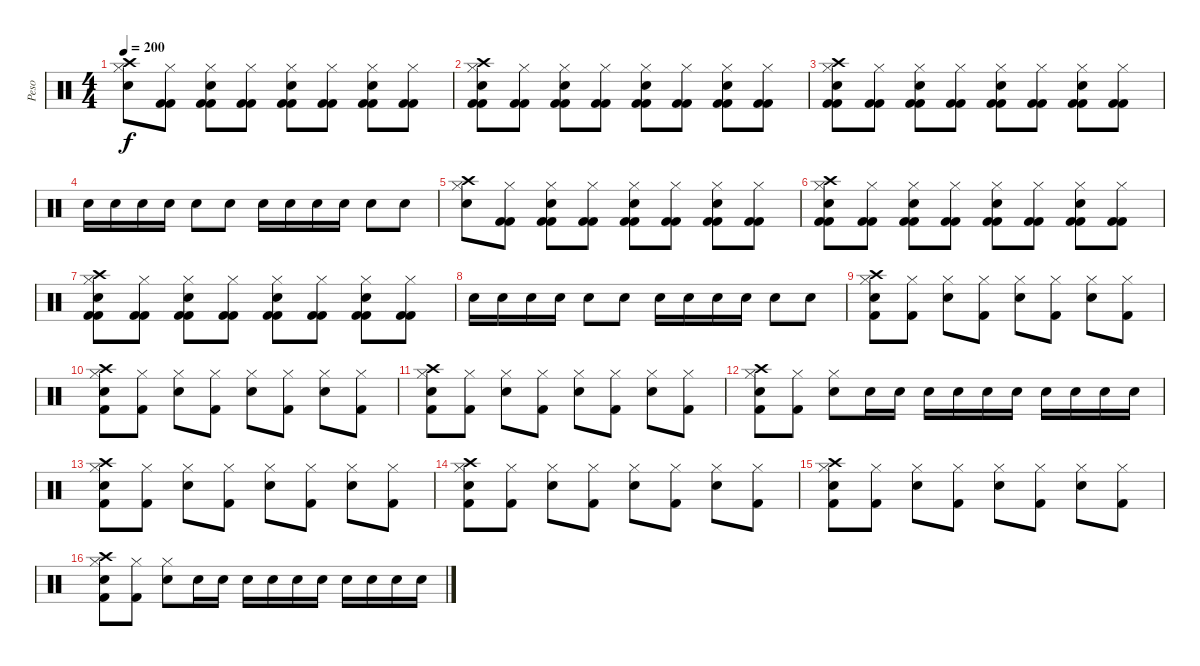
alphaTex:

\track ("Peso" "Peso") {instrument percussion}
\staff {score}
\articulation defaults
\ts (4 4)
\tempo 200
\clef neutral
\ks c
("Crash high (hit)" "Hi-Hat (closed)" "Snare (hit) 2").8{dy f} ("Hi-Hat (closed)" "Kick (hit) 2" "Kick (hit) 2").8 ("Hi-Hat (closed)" "Snare (hit) 2" "Kick (hit) 2" "Kick (hit) 2").8 ("Hi-Hat (closed)" "Kick (hit) 2" "Kick (hit) 2").8 ("Hi-Hat (closed)" "Snare (hit) 2" "Kick (hit) 2" "Kick (hit) 2").8 ("Hi-Hat (closed)" "Kick (hit) 2" "Kick (hit) 2").8 ("Hi-Hat (closed)" "Snare (hit) 2" "Kick (hit) 2" "Kick (hit) 2").8 ("Hi-Hat (closed)" "Kick (hit) 2" "Kick (hit) 2").8 |
("Crash high (hit)" "Hi-Hat (closed)" "Snare (hit) 2" "Kick (hit) 2" "Kick (hit) 2").8 ("Hi-Hat (closed)" "Kick (hit) 2" "Kick (hit) 2").8 ("Hi-Hat (closed)" "Snare (hit) 2" "Kick (hit) 2" "Kick (hit) 2").8 ("Hi-Hat (closed)" "Kick (hit) 2" "Kick (hit) 2").8 ("Hi-Hat (closed)" "Snare (hit) 2" "Kick (hit) 2" "Kick (hit) 2").8 ("Hi-Hat (closed)" "Kick (hit) 2" "Kick (hit) 2").8 ("Hi-Hat (closed)" "Snare (hit) 2" "Kick (hit) 2" "Kick (hit) 2").8 ("Hi-Hat (closed)" "Kick (hit) 2" "Kick (hit) 2").8 |
("Crash high (hit)" "Hi-Hat (closed)" "Snare (hit) 2" "Kick (hit) 2" "Kick (hit) 2").8 ("Hi-Hat (closed)" "Kick (hit) 2" "Kick (hit) 2").8 ("Hi-Hat (closed)" "Snare (hit) 2" "Kick (hit) 2" "Kick (hit) 2").8 ("Hi-Hat (closed)" "Kick (hit) 2" "Kick (hit) 2").8 ("Hi-Hat (closed)" "Snare (hit) 2" "Kick (hit) 2" "Kick (hit) 2").8 ("Hi-Hat (closed)" "Kick (hit) 2" "Kick (hit) 2").8 ("Hi-Hat (closed)" "Snare (hit) 2" "Kick (hit) 2" "Kick (hit) 2").8 ("Hi-Hat (closed)" "Kick (hit) 2" "Kick (hit) 2").8 |
"Snare (hit) 2".16 "Snare (hit) 2".16 "Snare (hit) 2".16 "Snare (hit) 2".16 "Snare (hit) 2".8 "Snare (hit) 2".8 "Snare (hit) 2".16 "Snare (hit) 2".16 "Snare (hit) 2".16 "Snare (hit) 2".16 "Snare (hit) 2".8 "Snare (hit) 2".8 |
("Crash high (hit)" "Hi-Hat (closed)" "Snare (hit) 2").8 ("Hi-Hat (closed)" "Kick (hit) 2" "Kick (hit) 2").8 ("Hi-Hat (closed)" "Snare (hit) 2" "Kick (hit) 2" "Kick (hit) 2").8 ("Hi-Hat (closed)" "Kick (hit) 2" "Kick (hit) 2").8 ("Hi-Hat (closed)" "Snare (hit) 2" "Kick (hit) 2" "Kick (hit) 2").8 ("Hi-Hat (closed)" "Kick (hit) 2" "Kick (hit) 2").8 ("Hi-Hat (closed)" "Snare (hit) 2" "Kick (hit) 2" "Kick (hit) 2").8 ("Hi-Hat (closed)" "Kick (hit) 2" "Kick (hit) 2").8 |
("Crash high (hit)" "Hi-Hat (closed)" "Snare (hit) 2" "Kick (hit) 2" "Kick (hit) 2").8 ("Hi-Hat (closed)" "Kick (hit) 2" "Kick (hit) 2").8 ("Hi-Hat (closed)" "Snare (hit) 2" "Kick (hit) 2" "Kick (hit) 2").8 ("Hi-Hat (closed)" "Kick (hit) 2" "Kick (hit) 2").8 ("Hi-Hat (closed)" "Snare (hit) 2" "Kick (hit) 2" "Kick (hit) 2").8 ("Hi-Hat (closed)" "Kick (hit) 2" "Kick (hit) 2").8 ("Hi-Hat (closed)" "Snare (hit) 2" "Kick (hit) 2" "Kick (hit) 2").8 ("Hi-Hat (closed)" "Kick (hit) 2" "Kick (hit) 2").8 |
("Crash high (hit)" "Hi-Hat (closed)" "Snare (hit) 2" "Kick (hit) 2" "Kick (hit) 2").8 ("Hi-Hat (closed)" "Kick (hit) 2" "Kick (hit) 2").8 ("Hi-Hat (closed)" "Snare (hit) 2" "Kick (hit) 2" "Kick (hit) 2").8 ("Hi-Hat (closed)" "Kick (hit) 2" "Kick (hit) 2").8 ("Hi-Hat (closed)" "Snare (hit) 2" "Kick (hit) 2" "Kick (hit) 2").8 ("Hi-Hat (closed)" "Kick (hit) 2" "Kick (hit) 2").8 ("Hi-Hat (closed)" "Snare (hit) 2" "Kick (hit) 2" "Kick (hit) 2").8 ("Hi-Hat (closed)" "Kick (hit) 2" "Kick (hit) 2").8 |
"Snare (hit) 2".16 "Snare (hit) 2".16 "Snare (hit) 2".16 "Snare (hit) 2".16 "Snare (hit) 2".8 "Snare (hit) 2".8 "Snare (hit) 2".16 "Snare (hit) 2".16 "Snare (hit) 2".16 "Snare (hit) 2".16 "Snare (hit) 2".8 "Snare (hit) 2".8 |
("Crash high (hit)" "Hi-Hat (closed)" "Snare (hit) 2" "Kick (hit) 2").8 ("Hi-Hat (closed)" "Kick (hit) 2").8 ("Hi-Hat (closed)" "Snare (hit) 2").8 ("Hi-Hat (closed)" "Kick (hit) 2").8 ("Hi-Hat (closed)" "Snare (hit) 2").8 ("Hi-Hat (closed)" "Kick (hit) 2").8 ("Hi-Hat (closed)" "Snare (hit) 2").8 ("Hi-Hat (closed)" "Kick (hit) 2").8 |
("Crash high (hit)" "Hi-Hat (closed)" "Snare (hit) 2" "Kick (hit) 2").8 ("Hi-Hat (closed)" "Kick (hit) 2").8 ("Hi-Hat (closed)" "Snare (hit) 2").8 ("Hi-Hat (closed)" "Kick (hit) 2").8 ("Hi-Hat (closed)" "Snare (hit) 2").8 ("Hi-Hat (closed)" "Kick (hit) 2").8 ("Hi-Hat (closed)" "Snare (hit) 2").8 ("Hi-Hat (closed)" "Kick (hit) 2").8 |
("Crash high (hit)" "Hi-Hat (closed)" "Snare (hit) 2" "Kick (hit) 2").8 ("Hi-Hat (closed)" "Kick (hit) 2").8 ("Hi-Hat (closed)" "Snare (hit) 2").8 ("Hi-Hat (closed)" "Kick (hit) 2").8 ("Hi-Hat (closed)" "Snare (hit) 2").8 ("Hi-Hat (closed)" "Kick (hit) 2").8 ("Hi-Hat (closed)" "Snare (hit) 2").8 ("Hi-Hat (closed)" "Kick (hit) 2").8 |
("Crash high (hit)" "Hi-Hat (closed)" "Snare (hit) 2" "Kick (hit) 2").8 ("Hi-Hat (closed)" "Kick (hit) 2").8 ("Hi-Hat (closed)" "Snare (hit) 2").8 "Snare (hit) 2".16 "Snare (hit) 2".16 "Snare (hit) 2".16 "Snare (hit) 2".16 "Snare (hit) 2".16 "Snare (hit) 2".16 "Snare (hit) 2".16 "Snare (hit) 2".16 "Snare (hit) 2".16 "Snare (hit) 2".16 |
("Crash high (hit)" "Hi-Hat (closed)" "Snare (hit) 2" "Kick (hit) 2").8 ("Hi-Hat (closed)" "Kick (hit) 2").8 ("Hi-Hat (closed)" "Snare (hit) 2").8 ("Hi-Hat (closed)" "Kick (hit) 2").8 ("Hi-Hat (closed)" "Snare (hit) 2").8 ("Hi-Hat (closed)" "Kick (hit) 2").8 ("Hi-Hat (closed)" "Snare (hit) 2").8 ("Hi-Hat (closed)" "Kick (hit) 2").8 |
("Crash high (hit)" "Hi-Hat (closed)" "Snare (hit) 2" "Kick (hit) 2").8 ("Hi-Hat (closed)" "Kick (hit) 2").8 ("Hi-Hat (closed)" "Snare (hit) 2").8 ("Hi-Hat (closed)" "Kick (hit) 2").8 ("Hi-Hat (closed)" "Snare (hit) 2").8 ("Hi-Hat (closed)" "Kick (hit) 2").8 ("Hi-Hat (closed)" "Snare (hit) 2").8 ("Hi-Hat (closed)" "Kick (hit) 2").8 |
("Crash high (hit)" "Hi-Hat (closed)" "Snare (hit) 2" "Kick (hit) 2").8 ("Hi-Hat (closed)" "Kick (hit) 2").8 ("Hi-Hat (closed)" "Snare (hit) 2").8 ("Hi-Hat (closed)" "Kick (hit) 2").8 ("Hi-Hat (closed)" "Snare (hit) 2").8 ("Hi-Hat (closed)" "Kick (hit) 2").8 ("Hi-Hat (closed)" "Snare (hit) 2").8 ("Hi-Hat (closed)" "Kick (hit) 2").8 |
("Crash high (hit)" "Hi-Hat (closed)" "Snare (hit) 2" "Kick (hit) 2").8 ("Hi-Hat (closed)" "Kick (hit) 2").8 ("Hi-Hat (closed)" "Snare (hit) 2").8 "Snare (hit) 2".16 "Snare (hit) 2".16 "Snare (hit) 2".16 "Snare (hit) 2".16 "Snare (hit) 2".16 "Snare (hit) 2".16 "Snare (hit) 2".16 "Snare (hit) 2".16 "Snare (hit) 2".16 "Snare (hit) 2".16
